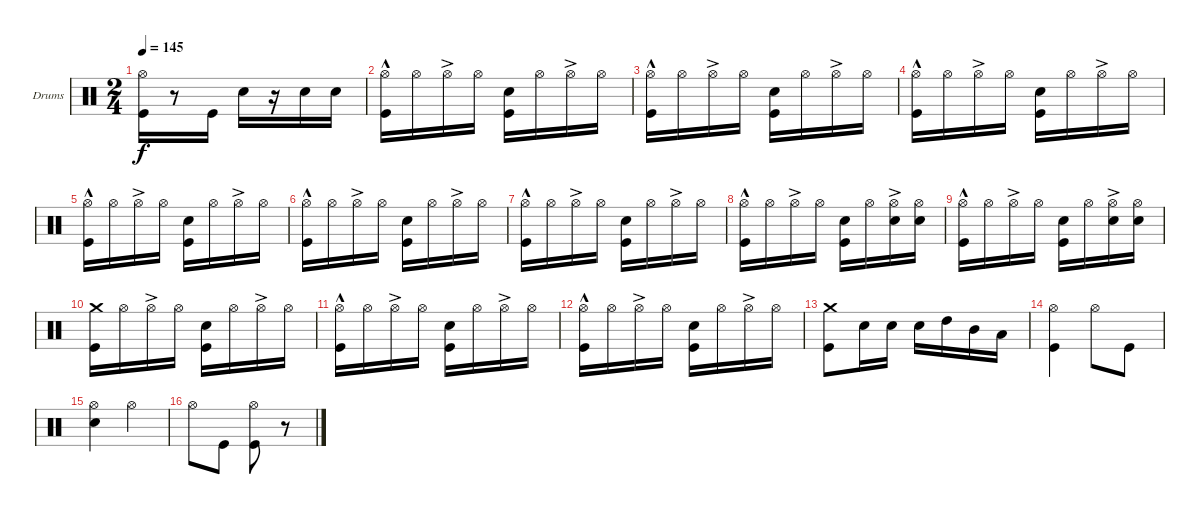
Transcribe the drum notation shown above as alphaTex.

\bracketExtendMode groupsimilarinstruments
\firstSystemTrackNameOrientation horizontal
\otherSystemsTrackNameOrientation horizontal
\track ("Drumkit" "Drums") {instrument percussion}
\staff {score}
\articulation defaults
\ts (2 4)
\tempo 145
\clef neutral
\ks c
("Hi-Hat (open)" "Kick (hit)").16{dy f} r.8 "Kick (hit)".16 "Snare (hit) 2".16 r.16 "Snare (hit) 2".16 "Snare (hit) 2".16 |
("Hi-Hat (open)"{hac} "Kick (hit)").16 "Hi-Hat (open)".16 "Hi-Hat (open)"{ac}.16 "Hi-Hat (open)".16 ("Snare (hit) 2" "Kick (hit)").16 "Hi-Hat (open)".16 "Hi-Hat (open)"{ac}.16 "Hi-Hat (open)".16 |
("Hi-Hat (open)"{hac} "Kick (hit)").16 "Hi-Hat (open)".16 "Hi-Hat (open)"{ac}.16 "Hi-Hat (open)".16 ("Snare (hit) 2" "Kick (hit)").16 "Hi-Hat (open)".16 "Hi-Hat (open)"{ac}.16 "Hi-Hat (open)".16 |
("Hi-Hat (open)"{hac} "Kick (hit)").16 "Hi-Hat (open)".16 "Hi-Hat (open)"{ac}.16 "Hi-Hat (open)".16 ("Snare (hit) 2" "Kick (hit)").16 "Hi-Hat (open)".16 "Hi-Hat (open)"{ac}.16 "Hi-Hat (open)".16 |
("Hi-Hat (open)"{hac} "Kick (hit)").16 "Hi-Hat (open)".16 "Hi-Hat (open)"{ac}.16 "Hi-Hat (open)".16 ("Snare (hit) 2" "Kick (hit)").16 "Hi-Hat (open)".16 "Hi-Hat (open)"{ac}.16 "Hi-Hat (open)".16 |
("Hi-Hat (open)"{hac} "Kick (hit)").16 "Hi-Hat (open)".16 "Hi-Hat (open)"{ac}.16 "Hi-Hat (open)".16 ("Snare (hit) 2" "Kick (hit)").16 "Hi-Hat (open)".16 "Hi-Hat (open)"{ac}.16 "Hi-Hat (open)".16 |
("Hi-Hat (open)"{hac} "Kick (hit)").16 "Hi-Hat (open)".16 "Hi-Hat (open)"{ac}.16 "Hi-Hat (open)".16 ("Snare (hit) 2" "Kick (hit)").16 "Hi-Hat (open)".16 "Hi-Hat (open)"{ac}.16 "Hi-Hat (open)".16 |
("Hi-Hat (open)"{hac} "Kick (hit)").16 "Hi-Hat (open)".16 "Hi-Hat (open)"{ac}.16 "Hi-Hat (open)".16 ("Snare (hit) 2" "Kick (hit)").16 "Hi-Hat (open)".16 ("Hi-Hat (open)"{ac} "Snare (hit) 2").16 ("Hi-Hat (open)" "Snare (hit) 2").16 |
("Hi-Hat (open)"{hac} "Kick (hit)").16 "Hi-Hat (open)".16 "Hi-Hat (open)"{ac}.16 "Hi-Hat (open)".16 ("Snare (hit) 2" "Kick (hit)").16 "Hi-Hat (open)".16 ("Hi-Hat (open)"{ac} "Snare (hit) 2").16 ("Hi-Hat (open)" "Snare (hit) 2").16 |
("Kick (hit)" "Crash medium (hit)").16 "Hi-Hat (open)".16 "Hi-Hat (open)"{ac}.16 "Hi-Hat (open)".16 ("Snare (hit) 2" "Kick (hit)").16 "Hi-Hat (open)".16 "Hi-Hat (open)"{ac}.16 "Hi-Hat (open)".16 |
("Hi-Hat (open)"{hac} "Kick (hit)").16 "Hi-Hat (open)".16 "Hi-Hat (open)"{ac}.16 "Hi-Hat (open)".16 ("Snare (hit) 2" "Kick (hit)").16 "Hi-Hat (open)".16 "Hi-Hat (open)"{ac}.16 "Hi-Hat (open)".16 |
("Hi-Hat (open)"{hac} "Kick (hit)").16 "Hi-Hat (open)".16 "Hi-Hat (open)"{ac}.16 "Hi-Hat (open)".16 ("Snare (hit) 2" "Kick (hit)").16 "Hi-Hat (open)".16 "Hi-Hat (open)"{ac}.16 "Hi-Hat (open)".16 |
("Kick (hit)" "Crash medium (hit)").8 "Snare (hit) 2".16 "Snare (hit) 2".16 "Snare (hit) 2".16 "High Tom (hit)".16 "Mid Tom (hit)".16 "Low Tom (hit)".16 |
("Kick (hit)" "Hi-Hat (open)").4 "Hi-Hat (open)".8 "Kick (hit)".8 |
("Snare (hit) 2" "Hi-Hat (open)").4 "Hi-Hat (open)".4 |
"Hi-Hat (open)".8 "Kick (hit)".8 ("Kick (hit)" "Hi-Hat (open)").8 r.8
